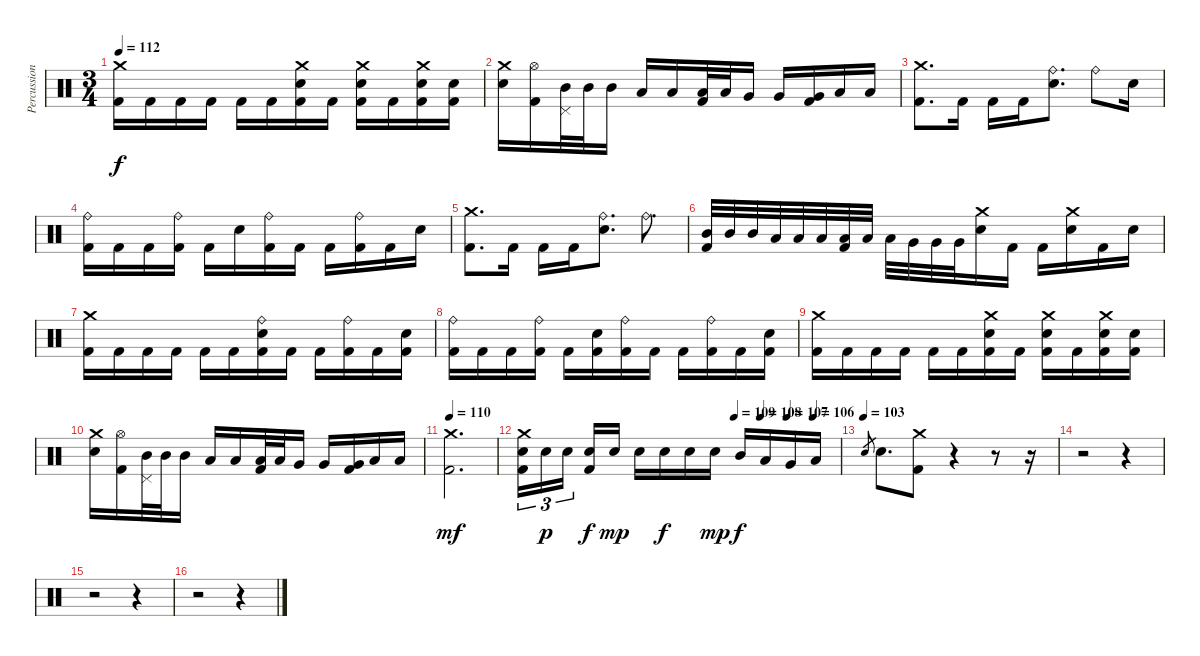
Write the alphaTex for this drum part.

\track ("Percussion" "Percussion") {instrument percussion}
\staff {score}
\articulation defaults
\ts (3 4)
\tempo 112
\clef neutral
\ks c
("Crash medium (hit)" "Kick (hit) 2").16{dy f} "Kick (hit) 2".16 "Kick (hit) 2".16 "Kick (hit) 2".16 "Kick (hit) 2".16 "Kick (hit) 2".16 ("Crash medium (hit)" "Electric Snare (hit)" "Kick (hit) 2").16 "Kick (hit) 2".16 ("Crash medium (hit)" "Electric Snare (hit)" "Kick (hit) 2").16 "Kick (hit) 2".16 ("Crash medium (hit)" "Electric Snare (hit)" "Kick (hit) 2").16 ("Electric Snare (hit)" "Kick (hit) 2").16 |
("Crash medium (hit)" "Electric Snare (hit)").16 ("Hi-Hat (open)" "Kick (hit) 2").16 ("Pedal Hi-Hat (hit)" "Mid Tom (hit)").32 "Mid Tom (hit)".32 "Mid Tom (hit)".16 "Low Tom (hit)".16 "Low Tom (hit)".16 ("Low Tom (hit)" "Kick (hit) 2").32 "Low Tom (hit)".32 "Very Low Tom (hit)".16 "Very Low Tom (hit)".16 ("Very Low Tom (hit)" "Kick (hit) 2").16 "Low Floor Tom (hit)".16 "Low Floor Tom (hit)".16 |
("Crash medium (hit)" "Kick (hit) 2").8{d} "Kick (hit) 2".16 "Kick (hit) 2".16 "Kick (hit) 2".16 ("Ride (bell)" "Electric Snare (hit)").8{d} "Ride (bell)".8 "Electric Snare (hit)".16 |
("Ride (bell)" "Kick (hit) 2").16 "Kick (hit) 2".16 "Kick (hit) 2".16 ("Ride (bell)" "Kick (hit) 2").16 "Kick (hit) 2".16 "Electric Snare (hit)".16 ("Ride (bell)" "Kick (hit) 2").16 "Kick (hit) 2".16 "Kick (hit) 2".16 ("Ride (bell)" "Kick (hit) 2").16 "Kick (hit) 2".16 "Electric Snare (hit)".16 |
("Crash medium (hit)" "Kick (hit) 2").8{d} "Kick (hit) 2".16 "Kick (hit) 2".16 "Kick (hit) 2".16 ("Ride (bell)" "Electric Snare (hit)").8{d} "Ride (bell)".8{d} |
("Mid Tom (hit)" "Kick (hit) 2").32 "Mid Tom (hit)".32 "Mid Tom (hit)".32 "Low Tom (hit)".32 "Low Tom (hit)".32 "Low Tom (hit)".32 ("Low Tom (hit)" "Kick (hit) 2").32 "Low Tom (hit)".32 "Low Tom (hit)".32 "Very Low Tom (hit)".32 "Very Low Tom (hit)".32 "Very Low Tom (hit)".32 ("Crash medium (hit)" "Electric Snare (hit)").16 "Kick (hit) 2".16 "Kick (hit) 2".16 ("Crash medium (hit)" "Electric Snare (hit)").16 "Kick (hit) 2".16 "Electric Snare (hit)".16 |
("Crash medium (hit)" "Kick (hit) 2").16 "Kick (hit) 2".16 "Kick (hit) 2".16 "Kick (hit) 2".16 "Kick (hit) 2".16 "Kick (hit) 2".16 ("Ride (bell)" "Electric Snare (hit)" "Kick (hit) 2").16 "Kick (hit) 2".16 "Kick (hit) 2".16 ("Ride (bell)" "Kick (hit) 2").16 "Kick (hit) 2".16 ("Electric Snare (hit)" "Kick (hit) 2").16 |
("Ride (bell)" "Kick (hit) 2").16 "Kick (hit) 2".16 "Kick (hit) 2".16 ("Ride (bell)" "Kick (hit) 2").16 "Kick (hit) 2".16 ("Electric Snare (hit)" "Kick (hit) 2").16 ("Ride (bell)" "Kick (hit) 2").16 "Kick (hit) 2".16 "Kick (hit) 2".16 ("Ride (bell)" "Kick (hit) 2").16 "Kick (hit) 2".16 ("Electric Snare (hit)" "Kick (hit) 2").16 |
("Crash medium (hit)" "Kick (hit) 2").16 "Kick (hit) 2".16 "Kick (hit) 2".16 "Kick (hit) 2".16 "Kick (hit) 2".16 "Kick (hit) 2".16 ("Crash medium (hit)" "Electric Snare (hit)" "Kick (hit) 2").16 "Kick (hit) 2".16 ("Crash medium (hit)" "Electric Snare (hit)" "Kick (hit) 2").16 "Kick (hit) 2".16 ("Crash medium (hit)" "Electric Snare (hit)" "Kick (hit) 2").16 ("Electric Snare (hit)" "Kick (hit) 2").16 |
("Crash medium (hit)" "Electric Snare (hit)").16 ("Hi-Hat (open)" "Kick (hit) 2").16 ("Pedal Hi-Hat (hit)" "Mid Tom (hit)").32 "Mid Tom (hit)".32 "Mid Tom (hit)".16 "Low Tom (hit)".16 "Low Tom (hit)".16 ("Low Tom (hit)" "Kick (hit) 2").32 "Low Tom (hit)".32 "Very Low Tom (hit)".16 "Very Low Tom (hit)".16 ("Very Low Tom (hit)" "Kick (hit) 2").16 "Low Floor Tom (hit)".16 "Low Floor Tom (hit)".16 |
\tempo 110
("Crash medium (hit)" "Kick (hit) 2").2{d dy mf} |
\tempo (109 0.6666666666666666)
\tempo (108 0.75)
\tempo (107 0.8333333333333334)
\tempo (106 0.9166666666666666)
("Crash medium (hit)" "Electric Snare (hit)" "Kick (hit) 2").16{tu (3 2)} "Electric Snare (hit)".16{tu (3 2) dy p} "Electric Snare (hit)".16{tu (3 2) beam splitsecondary} ("Electric Snare (hit)" "Kick (hit) 2").16{dy f} "Electric Snare (hit)".16{dy mp} "Electric Snare (hit)".16 "Electric Snare (hit)".16{dy f} "Electric Snare (hit)".16 "Electric Snare (hit)".16{dy mp} "Mid Tom (hit)".16{dy f} "Low Tom (hit)".16 "Very Low Tom (hit)".16 "Low Floor Tom (hit)".16 |
\tempo (103)
"Electric Snare (hit)".8{gr} "Electric Snare (hit)".8{d} ("Crash medium (hit)" "Kick (hit) 2").8 r.4 r.8 r.16 |
r.2 r.4 |
r.2 r.4 |
r.2 r.4
